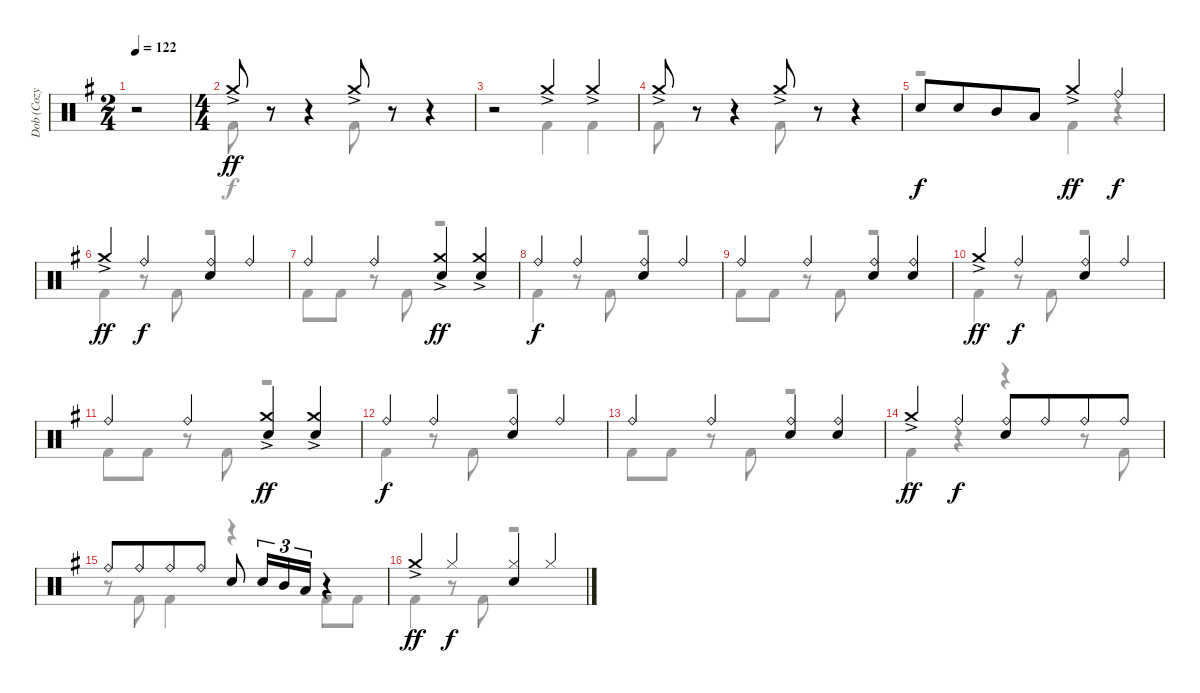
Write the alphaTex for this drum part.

\track ("Dob (Cozy Powell)" "Dob (Cozy ") {instrument percussion}
\staff {score}
\articulation defaults
\voice
\ts (2 4)
\tempo 122
\clef neutral
\ks g
r.2{dy ff} |
\ts (4 4)
"Crash medium (hit)"{ac}.8 r.8 r.4 "Crash medium (hit)"{ac}.8 r.8 r.4 |
r.2 "Crash medium (hit)"{ac}.4 "Crash medium (hit)"{ac}.4 |
"Crash medium (hit)"{ac}.8 r.8 r.4 "Crash medium (hit)"{ac}.8 r.8 r.4 |
"Electric Snare (hit)".8{dy f} "Electric Snare (hit)".8{beam merge} "Mid Tom (hit)".8 "Low Tom (hit)".8 "Crash medium (hit)"{ac}.4{dy ff} "Ride (bell)".4{dy f} |
"Crash medium (hit)"{ac}.4{dy ff} "Ride (bell)".4{dy f} ("Ride (bell)" "Electric Snare (hit)").4 "Ride (bell)".4 |
"Ride (bell)".4 "Ride (bell)".4 ("Crash medium (hit)"{ac} "Electric Snare (hit)").4{dy ff} ("Crash medium (hit)"{ac} "Electric Snare (hit)").4 |
"Ride (bell)".4{dy f} "Ride (bell)".4 ("Ride (bell)" "Electric Snare (hit)").4 "Ride (bell)".4 |
"Ride (bell)".4 "Ride (bell)".4 ("Ride (bell)" "Electric Snare (hit)").4 ("Ride (bell)" "Electric Snare (hit)").4 |
"Crash medium (hit)"{ac}.4{dy ff} "Ride (bell)".4{dy f} ("Ride (bell)" "Electric Snare (hit)").4 "Ride (bell)".4 |
"Ride (bell)".4 "Ride (bell)".4 ("Crash medium (hit)"{ac} "Electric Snare (hit)").4{dy ff} ("Crash medium (hit)"{ac} "Electric Snare (hit)").4 |
"Ride (bell)".4{dy f} "Ride (bell)".4 ("Ride (bell)" "Electric Snare (hit)").4 "Ride (bell)".4 |
"Ride (bell)".4 "Ride (bell)".4 ("Ride (bell)" "Electric Snare (hit)").4 ("Ride (bell)" "Electric Snare (hit)").4 |
"Crash medium (hit)"{ac}.4{dy ff} "Ride (bell)".4{dy f} ("Ride (bell)" "Electric Snare (hit)").8 "Ride (bell)".8{beam merge} "Ride (bell)".8 "Ride (bell)".8 |
"Ride (bell)".8 "Ride (bell)".8{beam merge} "Ride (bell)".8 "Ride (bell)".8 "Electric Snare (hit)".8 "Electric Snare (hit)".16{tu (3 2)} "Mid Tom (hit)".16{tu (3 2)} "Low Tom (hit)".16{tu (3 2)} r.4 |
"Crash medium (hit)"{ac}.4{dy ff} "Hi-Hat (closed)".4{dy f} ("Hi-Hat (closed)" "Electric Snare (hit)").4 "Hi-Hat (closed)".4
\voice
\clef neutral
\ottava regular
\simile none
\ks g
r.2{dy f} |
"Kick (hit) 2".8 r.8 r.4 "Kick (hit) 2".8 r.8 r.4 |
r.2 "Kick (hit) 2".4 "Kick (hit) 2".4 |
"Kick (hit) 2".8 r.8 r.4 "Kick (hit) 2".8 r.8 r.4 |
r.2 "Kick (hit) 2".4 r.4 |
"Kick (hit) 2".4 r.8 "Kick (hit) 2".8 r.2 |
"Kick (hit) 2".8 "Kick (hit) 2".8 r.8 "Kick (hit) 2".8 r.2 |
"Kick (hit) 2".4 r.8 "Kick (hit) 2".8 r.2 |
"Kick (hit) 2".8 "Kick (hit) 2".8 r.8 "Kick (hit) 2".8 r.2 |
"Kick (hit) 2".4 r.8 "Kick (hit) 2".8 r.2 |
"Kick (hit) 2".8 "Kick (hit) 2".8 r.8 "Kick (hit) 2".8 r.2 |
"Kick (hit) 2".4 r.8 "Kick (hit) 2".8 r.2 |
"Kick (hit) 2".8 "Kick (hit) 2".8 r.8 "Kick (hit) 2".8 r.2 |
"Kick (hit) 2".4 r.4 r.4 r.8 "Kick (hit) 2".8 |
r.8 "Kick (hit) 2".8 "Kick (hit) 2".4 r.4 "Kick (hit) 2".8 "Kick (hit) 2".8 |
"Kick (hit) 2".4 r.8 "Kick (hit) 2".8 r.2
